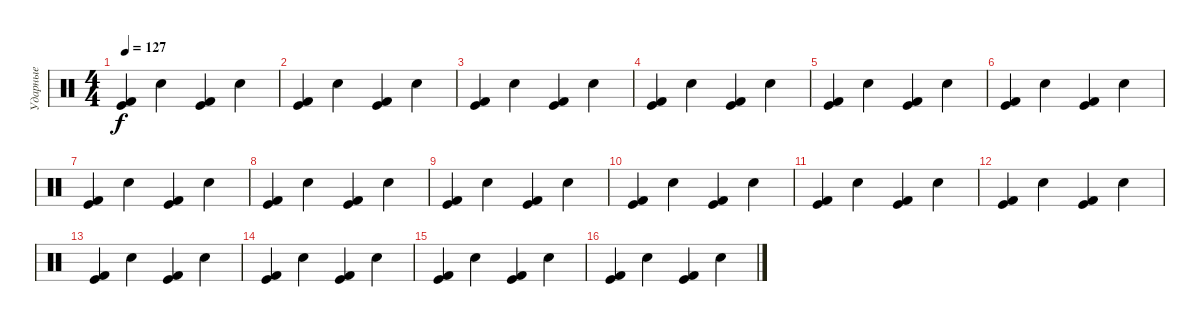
\track ("Ударные" "Ударные") {instrument percussion}
\staff {score}
\articulation defaults
\ts (4 4)
\tempo 127
\clef neutral
\ks c
("Kick (hit) 2" "Kick (hit)").4{dy f} "Snare (hit) 2".4 ("Kick (hit) 2" "Kick (hit)").4 "Snare (hit) 2".4 |
("Kick (hit) 2" "Kick (hit)").4 "Snare (hit) 2".4 ("Kick (hit) 2" "Kick (hit)").4 "Snare (hit) 2".4 |
("Kick (hit) 2" "Kick (hit)").4 "Snare (hit) 2".4 ("Kick (hit) 2" "Kick (hit)").4 "Snare (hit) 2".4 |
("Kick (hit) 2" "Kick (hit)").4 "Snare (hit) 2".4 ("Kick (hit) 2" "Kick (hit)").4 "Snare (hit) 2".4 |
("Kick (hit) 2" "Kick (hit)").4 "Snare (hit) 2".4 ("Kick (hit) 2" "Kick (hit)").4 "Snare (hit) 2".4 |
("Kick (hit) 2" "Kick (hit)").4 "Snare (hit) 2".4 ("Kick (hit) 2" "Kick (hit)").4 "Snare (hit) 2".4 |
("Kick (hit) 2" "Kick (hit)").4 "Snare (hit) 2".4 ("Kick (hit) 2" "Kick (hit)").4 "Snare (hit) 2".4 |
("Kick (hit) 2" "Kick (hit)").4 "Snare (hit) 2".4 ("Kick (hit) 2" "Kick (hit)").4 "Snare (hit) 2".4 |
("Kick (hit) 2" "Kick (hit)").4 "Snare (hit) 2".4 ("Kick (hit) 2" "Kick (hit)").4 "Snare (hit) 2".4 |
("Kick (hit) 2" "Kick (hit)").4 "Snare (hit) 2".4 ("Kick (hit) 2" "Kick (hit)").4 "Snare (hit) 2".4 |
("Kick (hit) 2" "Kick (hit)").4 "Snare (hit) 2".4 ("Kick (hit) 2" "Kick (hit)").4 "Snare (hit) 2".4 |
("Kick (hit) 2" "Kick (hit)").4 "Snare (hit) 2".4 ("Kick (hit) 2" "Kick (hit)").4 "Snare (hit) 2".4 |
("Kick (hit) 2" "Kick (hit)").4 "Snare (hit) 2".4 ("Kick (hit) 2" "Kick (hit)").4 "Snare (hit) 2".4 |
("Kick (hit) 2" "Kick (hit)").4 "Snare (hit) 2".4 ("Kick (hit) 2" "Kick (hit)").4 "Snare (hit) 2".4 |
("Kick (hit) 2" "Kick (hit)").4 "Snare (hit) 2".4 ("Kick (hit) 2" "Kick (hit)").4 "Snare (hit) 2".4 |
("Kick (hit) 2" "Kick (hit)").4 "Snare (hit) 2".4 ("Kick (hit) 2" "Kick (hit)").4 "Snare (hit) 2".4
